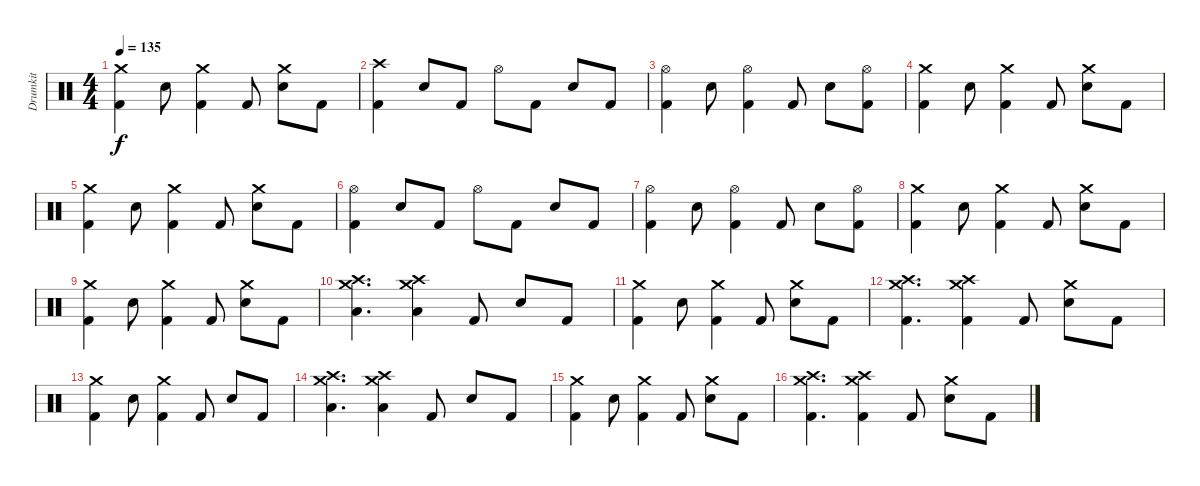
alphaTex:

\track ("Drumkit" "Drumkit") {instrument percussion}
\staff {score}
\articulation defaults
\ts (4 4)
\tempo 135
\clef neutral
\ks c
("Crash medium (hit)" "Kick (hit) 2").4{dy f} "Snare (hit) 2".8 ("Crash medium (hit)" "Kick (hit) 2").4 "Kick (hit) 2".8 ("Crash medium (hit)" "Snare (hit) 2").8 "Kick (hit) 2".8 |
("Crash high (hit)" "Kick (hit) 2").4 "Snare (hit) 2".8 "Kick (hit) 2".8 "Hi-Hat (open)".8 "Kick (hit) 2".8 "Snare (hit) 2".8 "Kick (hit) 2".8 |
("Hi-Hat (open)" "Kick (hit) 2").4 "Snare (hit) 2".8 ("Hi-Hat (open)" "Kick (hit) 2").4 "Kick (hit) 2".8 "Snare (hit) 2".8 ("Hi-Hat (open)" "Kick (hit) 2").8 |
("Crash medium (hit)" "Kick (hit) 2").4 "Snare (hit) 2".8 ("Crash medium (hit)" "Kick (hit) 2").4 "Kick (hit) 2".8 ("Crash medium (hit)" "Snare (hit) 2").8 "Kick (hit) 2".8 |
("Crash medium (hit)" "Kick (hit) 2").4 "Snare (hit) 2".8 ("Crash medium (hit)" "Kick (hit) 2").4 "Kick (hit) 2".8 ("Crash medium (hit)" "Snare (hit) 2").8 "Kick (hit) 2".8 |
("Hi-Hat (open)" "Kick (hit) 2").4 "Snare (hit) 2".8 "Kick (hit) 2".8 "Hi-Hat (open)".8 "Kick (hit) 2".8 "Snare (hit) 2".8 "Kick (hit) 2".8 |
("Hi-Hat (open)" "Kick (hit) 2").4 "Snare (hit) 2".8 ("Hi-Hat (open)" "Kick (hit) 2").4 "Kick (hit) 2".8 "Snare (hit) 2".8 ("Hi-Hat (open)" "Kick (hit) 2").8 |
("Crash medium (hit)" "Kick (hit) 2").4 "Snare (hit) 2".8 ("Crash medium (hit)" "Kick (hit) 2").4 "Kick (hit) 2".8 ("Crash medium (hit)" "Snare (hit) 2").8 "Kick (hit) 2".8 |
("Crash medium (hit)" "Kick (hit) 2").4 "Snare (hit) 2".8 ("Crash medium (hit)" "Kick (hit) 2").4 "Kick (hit) 2".8 ("Crash medium (hit)" "Snare (hit) 2").8 "Kick (hit) 2".8 |
("Crash high (hit)" "Crash medium (hit)" "Low Floor Tom (hit)").4{d} ("Crash high (hit)" "Crash medium (hit)" "Low Floor Tom (hit)").4 "Kick (hit) 2".8 "Snare (hit) 2".8 "Kick (hit) 2".8 |
("Crash medium (hit)" "Kick (hit) 2").4 "Snare (hit) 2".8 ("Crash medium (hit)" "Kick (hit) 2").4 "Kick (hit) 2".8 ("Crash medium (hit)" "Snare (hit) 2").8 "Kick (hit) 2".8 |
("Crash high (hit)" "Crash medium (hit)" "Kick (hit) 2").4{d} ("Crash high (hit)" "Crash medium (hit)" "Kick (hit) 2").4 "Kick (hit) 2".8 ("Crash medium (hit)" "Snare (hit) 2").8 "Kick (hit) 2".8 |
("Crash medium (hit)" "Kick (hit) 2").4 "Snare (hit) 2".8 ("Crash medium (hit)" "Kick (hit) 2").4 "Kick (hit) 2".8 "Snare (hit) 2".8 "Kick (hit) 2".8 |
("Crash high (hit)" "Crash medium (hit)" "Low Floor Tom (hit)").4{d} ("Crash high (hit)" "Crash medium (hit)" "Low Floor Tom (hit)").4 "Kick (hit) 2".8 "Snare (hit) 2".8 "Kick (hit) 2".8 |
("Crash medium (hit)" "Kick (hit) 2").4 "Snare (hit) 2".8 ("Crash medium (hit)" "Kick (hit) 2").4 "Kick (hit) 2".8 ("Crash medium (hit)" "Snare (hit) 2").8 "Kick (hit) 2".8 |
("Crash high (hit)" "Crash medium (hit)" "Kick (hit) 2").4{d} ("Crash high (hit)" "Crash medium (hit)" "Kick (hit) 2").4 "Kick (hit) 2".8 ("Crash medium (hit)" "Snare (hit) 2").8 "Kick (hit) 2".8
